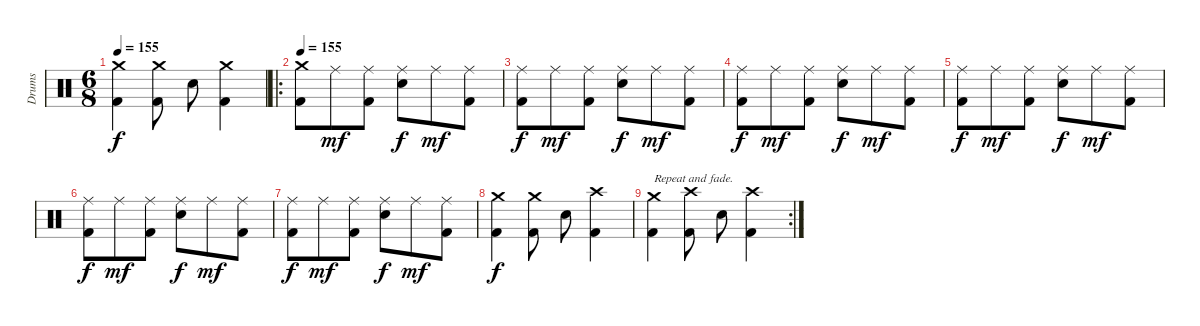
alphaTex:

\track ("Drums" "Drums") {instrument percussion}
\staff {score}
\articulation defaults
\ts (6 8)
\tempo 155
\clef neutral
\ks c
("Crash medium (hit)" "Kick (hit) 2").4{dy f} ("Crash medium (hit)" "Kick (hit) 2").8 "Electric Snare (hit)".8 ("Crash medium (hit)" "Kick (hit) 2").4 |
\ro
\tempo 155
("Crash medium (hit)" "Kick (hit) 2").8 "Ride (middle)".8{dy mf} ("Ride (middle)" "Kick (hit) 2").8 ("Ride (middle)" "Electric Snare (hit)").8{dy f} "Ride (middle)".8{dy mf} ("Ride (middle)" "Kick (hit) 2").8 |
("Ride (middle)" "Kick (hit) 2").8{dy f} "Ride (middle)".8{dy mf} ("Ride (middle)" "Kick (hit) 2").8 ("Ride (middle)" "Electric Snare (hit)").8{dy f} "Ride (middle)".8{dy mf} ("Ride (middle)" "Kick (hit) 2").8 |
("Ride (middle)" "Kick (hit) 2").8{dy f} "Ride (middle)".8{dy mf} ("Ride (middle)" "Kick (hit) 2").8 ("Ride (middle)" "Electric Snare (hit)").8{dy f} "Ride (middle)".8{dy mf} ("Ride (middle)" "Kick (hit) 2").8 |
("Ride (middle)" "Kick (hit) 2").8{dy f} "Ride (middle)".8{dy mf} ("Ride (middle)" "Kick (hit) 2").8 ("Ride (middle)" "Electric Snare (hit)").8{dy f} "Ride (middle)".8{dy mf} ("Ride (middle)" "Kick (hit) 2").8 |
("Ride (middle)" "Kick (hit) 2").8{dy f} "Ride (middle)".8{dy mf} ("Ride (middle)" "Kick (hit) 2").8 ("Ride (middle)" "Electric Snare (hit)").8{dy f} "Ride (middle)".8{dy mf} ("Ride (middle)" "Kick (hit) 2").8 |
("Ride (middle)" "Kick (hit) 2").8{dy f} "Ride (middle)".8{dy mf} ("Ride (middle)" "Kick (hit) 2").8 ("Ride (middle)" "Electric Snare (hit)").8{dy f} "Ride (middle)".8{dy mf} ("Ride (middle)" "Kick (hit) 2").8 |
("Crash medium (hit)" "Kick (hit) 2").4{dy f} ("Crash medium (hit)" "Kick (hit) 2").8 "Electric Snare (hit)".8 ("Crash high (hit)" "Kick (hit) 2").4 |
\rc 2
("Crash medium (hit)" "Kick (hit) 2").4{txt "Repeat and fade."} ("Crash high (hit)" "Kick (hit) 2").8 "Electric Snare (hit)".8 ("Crash high (hit)" "Kick (hit) 2").4
